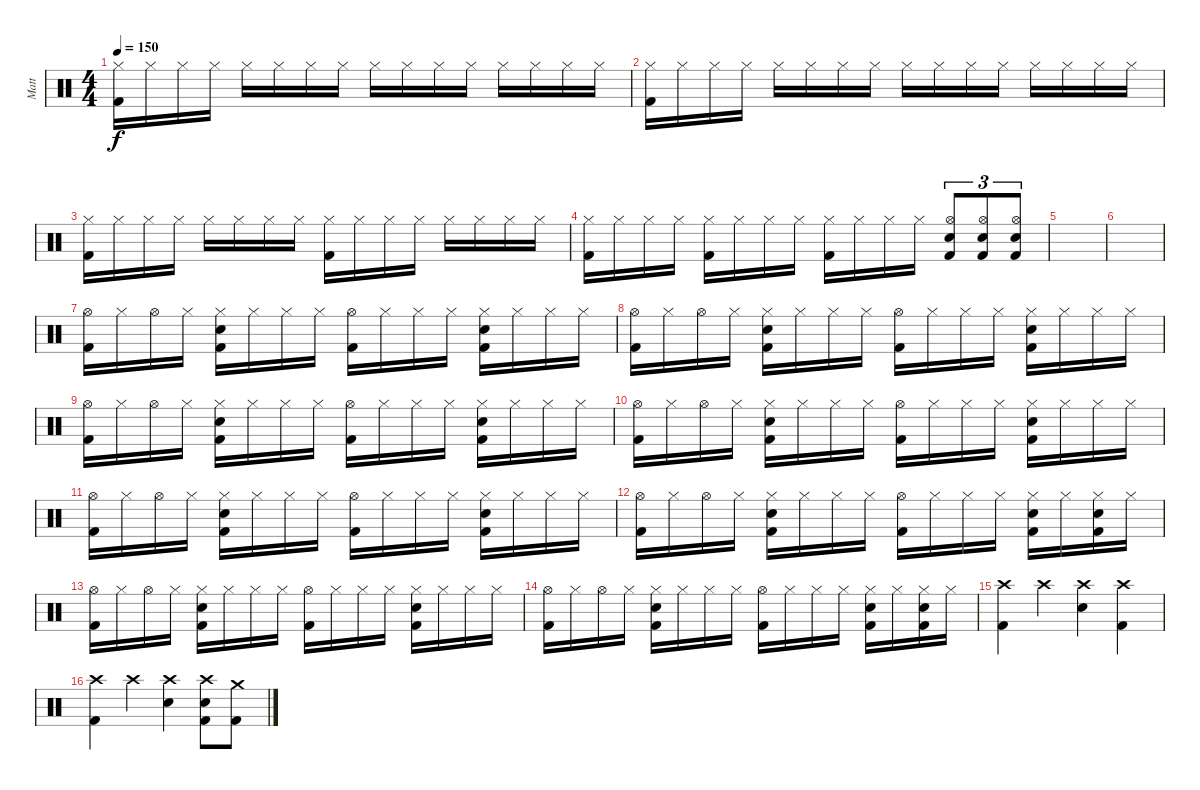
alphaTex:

\track ("Matt" "Matt") {instrument percussion}
\staff {score}
\articulation defaults
\ts (4 4)
\tempo 150
\clef neutral
\ks c
("Hi-Hat (closed)" "Kick (hit) 2").16{dy f} "Hi-Hat (closed)".16 "Hi-Hat (closed)".16 "Hi-Hat (closed)".16 "Hi-Hat (closed)".16 "Hi-Hat (closed)".16 "Hi-Hat (closed)".16 "Hi-Hat (closed)".16 "Hi-Hat (closed)".16 "Hi-Hat (closed)".16 "Hi-Hat (closed)".16 "Hi-Hat (closed)".16 "Hi-Hat (closed)".16 "Hi-Hat (closed)".16 "Hi-Hat (closed)".16 "Hi-Hat (closed)".16 |
("Hi-Hat (closed)" "Kick (hit) 2").16 "Hi-Hat (closed)".16 "Hi-Hat (closed)".16 "Hi-Hat (closed)".16 "Hi-Hat (closed)".16 "Hi-Hat (closed)".16 "Hi-Hat (closed)".16 "Hi-Hat (closed)".16 "Hi-Hat (closed)".16 "Hi-Hat (closed)".16 "Hi-Hat (closed)".16 "Hi-Hat (closed)".16 "Hi-Hat (closed)".16 "Hi-Hat (closed)".16 "Hi-Hat (closed)".16 "Hi-Hat (closed)".16 |
("Hi-Hat (closed)" "Kick (hit) 2").16 "Hi-Hat (closed)".16 "Hi-Hat (closed)".16 "Hi-Hat (closed)".16 "Hi-Hat (closed)".16 "Hi-Hat (closed)".16 "Hi-Hat (closed)".16 "Hi-Hat (closed)".16 ("Hi-Hat (closed)" "Kick (hit) 2").16 "Hi-Hat (closed)".16 "Hi-Hat (closed)".16 "Hi-Hat (closed)".16 "Hi-Hat (closed)".16 "Hi-Hat (closed)".16 "Hi-Hat (closed)".16 "Hi-Hat (closed)".16 |
("Hi-Hat (closed)" "Kick (hit) 2").16 "Hi-Hat (closed)".16 "Hi-Hat (closed)".16 "Hi-Hat (closed)".16 ("Hi-Hat (closed)" "Kick (hit) 2").16 "Hi-Hat (closed)".16 "Hi-Hat (closed)".16 "Hi-Hat (closed)".16 ("Hi-Hat (closed)" "Kick (hit) 2").16 "Hi-Hat (closed)".16 "Hi-Hat (closed)".16 "Hi-Hat (closed)".16 ("Hi-Hat (open)" "Snare (hit) 2" "Kick (hit) 2").8{tu (3 2)} ("Hi-Hat (open)" "Snare (hit) 2" "Kick (hit) 2").8{tu (3 2)} ("Hi-Hat (open)" "Snare (hit) 2" "Kick (hit) 2").8{tu (3 2)} |
|
|
("Hi-Hat (open)" "Kick (hit) 2").16{volume 16} "Hi-Hat (closed)".16 "Hi-Hat (open)".16 "Hi-Hat (closed)".16 ("Hi-Hat (closed)" "Snare (hit) 2" "Kick (hit) 2").16 "Hi-Hat (closed)".16 "Hi-Hat (closed)".16 "Hi-Hat (closed)".16 ("Hi-Hat (open)" "Kick (hit) 2").16 "Hi-Hat (closed)".16 "Hi-Hat (closed)".16 "Hi-Hat (closed)".16 ("Hi-Hat (closed)" "Snare (hit) 2" "Kick (hit) 2").16 "Hi-Hat (closed)".16 "Hi-Hat (closed)".16 "Hi-Hat (closed)".16 |
("Hi-Hat (open)" "Kick (hit) 2").16{volume 16} "Hi-Hat (closed)".16 "Hi-Hat (open)".16 "Hi-Hat (closed)".16 ("Hi-Hat (closed)" "Snare (hit) 2" "Kick (hit) 2").16 "Hi-Hat (closed)".16 "Hi-Hat (closed)".16 "Hi-Hat (closed)".16 ("Hi-Hat (open)" "Kick (hit) 2").16 "Hi-Hat (closed)".16 "Hi-Hat (closed)".16 "Hi-Hat (closed)".16 ("Hi-Hat (closed)" "Snare (hit) 2" "Kick (hit) 2").16 "Hi-Hat (closed)".16 "Hi-Hat (closed)".16 "Hi-Hat (closed)".16 |
("Hi-Hat (open)" "Kick (hit) 2").16{volume 16} "Hi-Hat (closed)".16 "Hi-Hat (open)".16 "Hi-Hat (closed)".16 ("Hi-Hat (closed)" "Snare (hit) 2" "Kick (hit) 2").16 "Hi-Hat (closed)".16 "Hi-Hat (closed)".16 "Hi-Hat (closed)".16 ("Hi-Hat (open)" "Kick (hit) 2").16 "Hi-Hat (closed)".16 "Hi-Hat (closed)".16 "Hi-Hat (closed)".16 ("Hi-Hat (closed)" "Snare (hit) 2" "Kick (hit) 2").16 "Hi-Hat (closed)".16 "Hi-Hat (closed)".16 "Hi-Hat (closed)".16 |
("Hi-Hat (open)" "Kick (hit) 2").16{volume 16} "Hi-Hat (closed)".16 "Hi-Hat (open)".16 "Hi-Hat (closed)".16 ("Hi-Hat (closed)" "Snare (hit) 2" "Kick (hit) 2").16 "Hi-Hat (closed)".16 "Hi-Hat (closed)".16 "Hi-Hat (closed)".16 ("Hi-Hat (open)" "Kick (hit) 2").16 "Hi-Hat (closed)".16 "Hi-Hat (closed)".16 "Hi-Hat (closed)".16 ("Hi-Hat (closed)" "Snare (hit) 2" "Kick (hit) 2").16 "Hi-Hat (closed)".16 "Hi-Hat (closed)".16 "Hi-Hat (closed)".16 |
("Hi-Hat (open)" "Kick (hit) 2").16{volume 16} "Hi-Hat (closed)".16 "Hi-Hat (open)".16 "Hi-Hat (closed)".16 ("Hi-Hat (closed)" "Snare (hit) 2" "Kick (hit) 2").16 "Hi-Hat (closed)".16 "Hi-Hat (closed)".16 "Hi-Hat (closed)".16 ("Hi-Hat (open)" "Kick (hit) 2").16 "Hi-Hat (closed)".16 "Hi-Hat (closed)".16 "Hi-Hat (closed)".16 ("Hi-Hat (closed)" "Snare (hit) 2" "Kick (hit) 2").16 "Hi-Hat (closed)".16 "Hi-Hat (closed)".16 "Hi-Hat (closed)".16 |
("Hi-Hat (open)" "Kick (hit) 2").16{volume 16} "Hi-Hat (closed)".16 "Hi-Hat (open)".16 "Hi-Hat (closed)".16 ("Hi-Hat (closed)" "Snare (hit) 2" "Kick (hit) 2").16 "Hi-Hat (closed)".16 "Hi-Hat (closed)".16 "Hi-Hat (closed)".16 ("Hi-Hat (open)" "Kick (hit) 2").16 "Hi-Hat (closed)".16 "Hi-Hat (closed)".16 "Hi-Hat (closed)".16 ("Hi-Hat (closed)" "Snare (hit) 2" "Kick (hit) 2").16 "Hi-Hat (closed)".16 ("Hi-Hat (closed)" "Snare (hit) 2" "Kick (hit) 2").16 "Hi-Hat (closed)".16 |
("Hi-Hat (open)" "Kick (hit) 2").16{volume 16} "Hi-Hat (closed)".16 "Hi-Hat (open)".16 "Hi-Hat (closed)".16 ("Hi-Hat (closed)" "Snare (hit) 2" "Kick (hit) 2").16 "Hi-Hat (closed)".16 "Hi-Hat (closed)".16 "Hi-Hat (closed)".16 ("Hi-Hat (open)" "Kick (hit) 2").16 "Hi-Hat (closed)".16 "Hi-Hat (closed)".16 "Hi-Hat (closed)".16 ("Hi-Hat (closed)" "Snare (hit) 2" "Kick (hit) 2").16 "Hi-Hat (closed)".16 "Hi-Hat (closed)".16 "Hi-Hat (closed)".16 |
("Hi-Hat (open)" "Kick (hit) 2").16{volume 16} "Hi-Hat (closed)".16 "Hi-Hat (open)".16 "Hi-Hat (closed)".16 ("Hi-Hat (closed)" "Snare (hit) 2" "Kick (hit) 2").16 "Hi-Hat (closed)".16 "Hi-Hat (closed)".16 "Hi-Hat (closed)".16 ("Hi-Hat (open)" "Kick (hit) 2").16 "Hi-Hat (closed)".16 "Hi-Hat (closed)".16 "Hi-Hat (closed)".16 ("Hi-Hat (closed)" "Snare (hit) 2" "Kick (hit) 2").16 "Hi-Hat (closed)".16 ("Hi-Hat (closed)" "Snare (hit) 2" "Kick (hit) 2").16 "Hi-Hat (closed)".16 |
("Crash high (hit)" "Kick (hit) 2").4 "Crash high (hit)".4 ("Crash high (hit)" "Snare (hit) 2").4 ("Crash high (hit)" "Kick (hit) 2").4 |
("Crash high (hit)" "Kick (hit) 2").4 "Crash high (hit)".4 ("Crash high (hit)" "Snare (hit) 2").4 ("Crash high (hit)" "Snare (hit) 2" "Kick (hit) 2").8 ("Crash medium (hit)" "Kick (hit) 2").8
